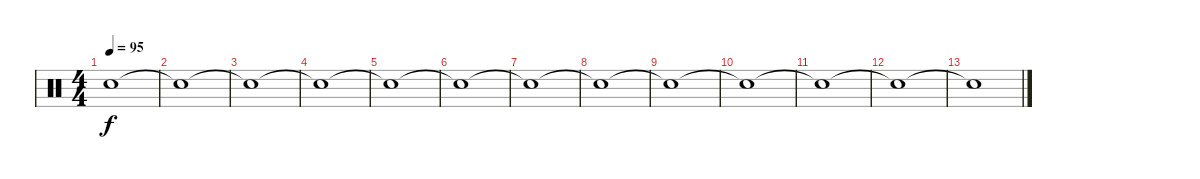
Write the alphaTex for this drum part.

\track "" {instrument percussion}
\staff {score}
\articulation defaults
\ts (4 4)
\tempo 95
\clef neutral
\ks c "Snare (hit)"{t}.1{dy f}
|
"Snare (hit)"{t}.1 |
"Snare (hit)"{t}.1 |
"Snare (hit)"{t}.1 |
"Snare (hit)"{t}.1 |
"Snare (hit)"{t}.1 |
"Snare (hit)"{t}.1 |
"Snare (hit)"{t}.1 |
"Snare (hit)"{t}.1 |
"Snare (hit)"{t}.1 |
"Snare (hit)"{t}.1 |
"Snare (hit)"{t}.1 |
"Snare (hit)"{t}.1
